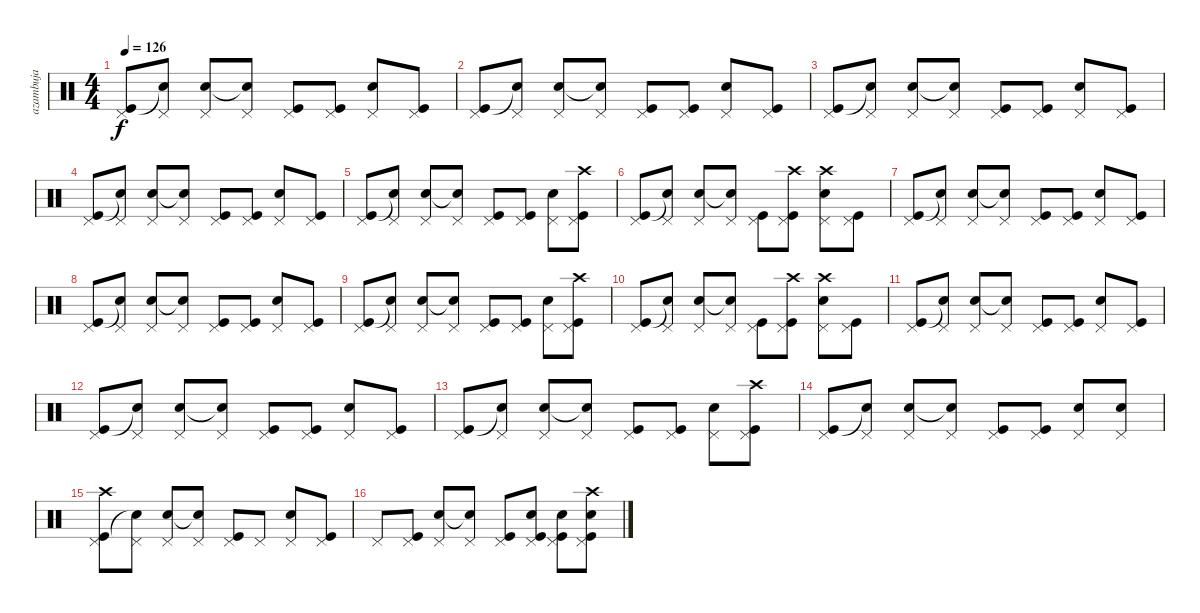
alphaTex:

\track ("azambuja" "azambuja") {instrument percussion}
\staff {score}
\articulation defaults
\ts (4 4)
\tempo 126
\clef neutral
\ks c
("Pedal Hi-Hat (hit)" "Kick (hit)").8{dy f} ("Pedal Hi-Hat (hit)" "Snare (hit)"{t}).8 ("Pedal Hi-Hat (hit)" "Snare (hit) 2").8 ("Pedal Hi-Hat (hit)" "Snare (hit) 2"{t}).8 ("Pedal Hi-Hat (hit)" "Kick (hit)").8 ("Pedal Hi-Hat (hit)" "Kick (hit)").8 ("Pedal Hi-Hat (hit)" "Snare (hit) 2").8 ("Pedal Hi-Hat (hit)" "Kick (hit)").8 |
("Pedal Hi-Hat (hit)" "Kick (hit)").8 ("Pedal Hi-Hat (hit)" "Snare (hit)"{t}).8 ("Pedal Hi-Hat (hit)" "Snare (hit) 2").8 ("Pedal Hi-Hat (hit)" "Snare (hit) 2"{t}).8 ("Pedal Hi-Hat (hit)" "Kick (hit)").8 ("Pedal Hi-Hat (hit)" "Kick (hit)").8 ("Pedal Hi-Hat (hit)" "Snare (hit) 2").8 ("Pedal Hi-Hat (hit)" "Kick (hit)").8 |
("Pedal Hi-Hat (hit)" "Kick (hit)").8 ("Pedal Hi-Hat (hit)" "Snare (hit)"{t}).8 ("Pedal Hi-Hat (hit)" "Snare (hit) 2").8 ("Pedal Hi-Hat (hit)" "Snare (hit) 2"{t}).8 ("Pedal Hi-Hat (hit)" "Kick (hit)").8 ("Pedal Hi-Hat (hit)" "Kick (hit)").8 ("Pedal Hi-Hat (hit)" "Snare (hit) 2").8 ("Pedal Hi-Hat (hit)" "Kick (hit)").8 |
("Pedal Hi-Hat (hit)" "Kick (hit)").8 ("Pedal Hi-Hat (hit)" "Snare (hit)"{t}).8 ("Pedal Hi-Hat (hit)" "Snare (hit) 2").8 ("Pedal Hi-Hat (hit)" "Snare (hit) 2"{t}).8 ("Pedal Hi-Hat (hit)" "Kick (hit)").8 ("Pedal Hi-Hat (hit)" "Kick (hit)").8 ("Pedal Hi-Hat (hit)" "Snare (hit) 2").8 ("Pedal Hi-Hat (hit)" "Kick (hit)").8 |
("Pedal Hi-Hat (hit)" "Kick (hit)").8 ("Pedal Hi-Hat (hit)" "Snare (hit)"{t}).8 ("Pedal Hi-Hat (hit)" "Snare (hit) 2").8 ("Pedal Hi-Hat (hit)" "Snare (hit) 2"{t}).8 ("Pedal Hi-Hat (hit)" "Kick (hit)").8 ("Pedal Hi-Hat (hit)" "Kick (hit)").8 ("Pedal Hi-Hat (hit)" "Snare (hit) 2").8 ("Crash high (hit)" "Pedal Hi-Hat (hit)" "Kick (hit)").8 |
("Pedal Hi-Hat (hit)" "Kick (hit)").8 ("Pedal Hi-Hat (hit)" "Snare (hit)"{t}).8 ("Pedal Hi-Hat (hit)" "Snare (hit) 2").8 ("Pedal Hi-Hat (hit)" "Snare (hit) 2"{t}).8 ("Pedal Hi-Hat (hit)" "Kick (hit)").8 ("Crash high (hit)" "Pedal Hi-Hat (hit)" "Kick (hit)").8 ("Crash high (hit)" "Pedal Hi-Hat (hit)" "Snare (hit) 2").8 ("Pedal Hi-Hat (hit)" "Kick (hit)").8 |
\section ("" "")
("Pedal Hi-Hat (hit)" "Kick (hit)").8 ("Pedal Hi-Hat (hit)" "Snare (hit)"{t}).8 ("Pedal Hi-Hat (hit)" "Snare (hit) 2").8 ("Pedal Hi-Hat (hit)" "Snare (hit) 2"{t}).8 ("Pedal Hi-Hat (hit)" "Kick (hit)").8 ("Pedal Hi-Hat (hit)" "Kick (hit)").8 ("Pedal Hi-Hat (hit)" "Snare (hit) 2").8 ("Pedal Hi-Hat (hit)" "Kick (hit)").8 |
("Pedal Hi-Hat (hit)" "Kick (hit)").8 ("Pedal Hi-Hat (hit)" "Snare (hit)"{t}).8 ("Pedal Hi-Hat (hit)" "Snare (hit) 2").8 ("Pedal Hi-Hat (hit)" "Snare (hit) 2"{t}).8 ("Pedal Hi-Hat (hit)" "Kick (hit)").8 ("Pedal Hi-Hat (hit)" "Kick (hit)").8 ("Pedal Hi-Hat (hit)" "Snare (hit) 2").8 ("Pedal Hi-Hat (hit)" "Kick (hit)").8 |
("Pedal Hi-Hat (hit)" "Kick (hit)").8 ("Pedal Hi-Hat (hit)" "Snare (hit)"{t}).8 ("Pedal Hi-Hat (hit)" "Snare (hit) 2").8 ("Pedal Hi-Hat (hit)" "Snare (hit) 2"{t}).8 ("Pedal Hi-Hat (hit)" "Kick (hit)").8 ("Pedal Hi-Hat (hit)" "Kick (hit)").8 ("Pedal Hi-Hat (hit)" "Snare (hit) 2").8 ("Crash high (hit)" "Pedal Hi-Hat (hit)" "Kick (hit)").8 |
("Pedal Hi-Hat (hit)" "Kick (hit)").8 ("Pedal Hi-Hat (hit)" "Snare (hit)"{t}).8 ("Pedal Hi-Hat (hit)" "Snare (hit) 2").8 ("Pedal Hi-Hat (hit)" "Snare (hit) 2"{t}).8 ("Pedal Hi-Hat (hit)" "Kick (hit)").8 ("Crash high (hit)" "Pedal Hi-Hat (hit)" "Kick (hit)").8 ("Crash high (hit)" "Pedal Hi-Hat (hit)" "Snare (hit) 2").8 ("Pedal Hi-Hat (hit)" "Kick (hit)").8 |
("Pedal Hi-Hat (hit)" "Kick (hit)").8 ("Pedal Hi-Hat (hit)" "Snare (hit)"{t}).8 ("Pedal Hi-Hat (hit)" "Snare (hit) 2").8 ("Pedal Hi-Hat (hit)" "Snare (hit) 2"{t}).8 ("Pedal Hi-Hat (hit)" "Kick (hit)").8 ("Pedal Hi-Hat (hit)" "Kick (hit)").8 ("Pedal Hi-Hat (hit)" "Snare (hit) 2").8 ("Pedal Hi-Hat (hit)" "Kick (hit)").8 |
("Pedal Hi-Hat (hit)" "Kick (hit)").8 ("Pedal Hi-Hat (hit)" "Snare (hit)"{t}).8 ("Pedal Hi-Hat (hit)" "Snare (hit) 2").8 ("Pedal Hi-Hat (hit)" "Snare (hit) 2"{t}).8 ("Pedal Hi-Hat (hit)" "Kick (hit)").8 ("Pedal Hi-Hat (hit)" "Kick (hit)").8 ("Pedal Hi-Hat (hit)" "Snare (hit) 2").8 ("Pedal Hi-Hat (hit)" "Kick (hit)").8 |
("Pedal Hi-Hat (hit)" "Kick (hit)").8 ("Pedal Hi-Hat (hit)" "Snare (hit)"{t}).8 ("Pedal Hi-Hat (hit)" "Snare (hit) 2").8 ("Pedal Hi-Hat (hit)" "Snare (hit) 2"{t}).8 ("Pedal Hi-Hat (hit)" "Kick (hit)").8 ("Pedal Hi-Hat (hit)" "Kick (hit)").8 ("Pedal Hi-Hat (hit)" "Snare (hit) 2").8 ("Crash high (hit)" "Pedal Hi-Hat (hit)" "Kick (hit)").8 |
("Pedal Hi-Hat (hit)" "Kick (hit)").8 ("Pedal Hi-Hat (hit)" "Snare (hit)"{t}).8 ("Pedal Hi-Hat (hit)" "Snare (hit) 2").8 ("Pedal Hi-Hat (hit)" "Snare (hit) 2"{t}).8 ("Pedal Hi-Hat (hit)" "Kick (hit)").8 ("Pedal Hi-Hat (hit)" "Kick (hit)").8 ("Pedal Hi-Hat (hit)" "Snare (hit) 2").8 ("Pedal Hi-Hat (hit)" "Snare (hit) 2").8 |
("Crash high (hit)" "Pedal Hi-Hat (hit)" "Kick (hit)").8 ("Pedal Hi-Hat (hit)" "Snare (hit)"{t}).8 ("Pedal Hi-Hat (hit)" "Snare (hit) 2").8 ("Pedal Hi-Hat (hit)" "Snare (hit) 2"{t}).8 ("Pedal Hi-Hat (hit)" "Kick (hit)").8 "Pedal Hi-Hat (hit)".8 ("Pedal Hi-Hat (hit)" "Snare (hit) 2").8 ("Pedal Hi-Hat (hit)" "Kick (hit)").8 |
"Pedal Hi-Hat (hit)".8 ("Pedal Hi-Hat (hit)" "Kick (hit)").8 ("Pedal Hi-Hat (hit)" "Snare (hit) 2").8 ("Pedal Hi-Hat (hit)" "Snare (hit) 2"{t}).8 ("Pedal Hi-Hat (hit)" "Kick (hit)").8 ("Pedal Hi-Hat (hit)" "Snare (hit) 2" "Kick (hit)").8 ("Pedal Hi-Hat (hit)" "Snare (hit) 2" "Kick (hit)").8 ("Crash high (hit)" "Pedal Hi-Hat (hit)" "Snare (hit) 2" "Kick (hit)").8
